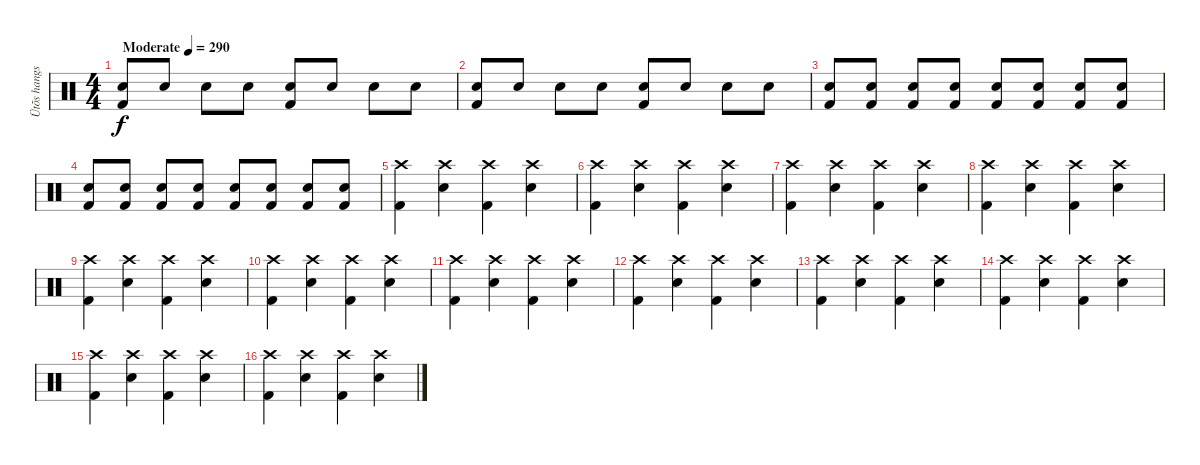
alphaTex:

\track ("Ütõs hangszer" "Ütõs hangs") {instrument percussion}
\staff {score}
\articulation defaults
\ts (4 4)
\tempo (290 "Moderate")
\clef neutral
\ks c
("Snare (hit) 2" "Kick (hit) 2").8{dy f} "Snare (hit) 2".8 "Snare (hit) 2".8 "Snare (hit) 2".8 ("Snare (hit) 2" "Kick (hit) 2").8 "Snare (hit) 2".8 "Snare (hit) 2".8 "Snare (hit) 2".8 |
("Snare (hit) 2" "Kick (hit) 2").8 "Snare (hit) 2".8 "Snare (hit) 2".8 "Snare (hit) 2".8 ("Snare (hit) 2" "Kick (hit) 2").8 "Snare (hit) 2".8 "Snare (hit) 2".8 "Snare (hit) 2".8 |
("Snare (hit) 2" "Kick (hit) 2").8 ("Snare (hit) 2" "Kick (hit) 2").8 ("Snare (hit) 2" "Kick (hit) 2").8 ("Snare (hit) 2" "Kick (hit) 2").8 ("Snare (hit) 2" "Kick (hit) 2").8 ("Snare (hit) 2" "Kick (hit) 2").8 ("Snare (hit) 2" "Kick (hit) 2").8 ("Snare (hit) 2" "Kick (hit) 2").8 |
("Snare (hit) 2" "Kick (hit) 2").8 ("Snare (hit) 2" "Kick (hit) 2").8 ("Snare (hit) 2" "Kick (hit) 2").8 ("Snare (hit) 2" "Kick (hit) 2").8 ("Snare (hit) 2" "Kick (hit) 2").8 ("Snare (hit) 2" "Kick (hit) 2").8 ("Snare (hit) 2" "Kick (hit) 2").8 ("Snare (hit) 2" "Kick (hit) 2").8 |
("Crash high (hit)" "Kick (hit) 2").4 ("Crash high (hit)" "Snare (hit) 2").4 ("Crash high (hit)" "Kick (hit) 2").4 ("Crash high (hit)" "Snare (hit) 2").4 |
("Crash high (hit)" "Kick (hit) 2").4 ("Crash high (hit)" "Snare (hit) 2").4 ("Crash high (hit)" "Kick (hit) 2").4 ("Crash high (hit)" "Snare (hit) 2").4 |
("Crash high (hit)" "Kick (hit) 2").4 ("Crash high (hit)" "Snare (hit) 2").4 ("Crash high (hit)" "Kick (hit) 2").4 ("Crash high (hit)" "Snare (hit) 2").4 |
("Crash high (hit)" "Kick (hit) 2").4 ("Crash high (hit)" "Snare (hit) 2").4 ("Crash high (hit)" "Kick (hit) 2").4 ("Crash high (hit)" "Snare (hit) 2").4 |
("Crash high (hit)" "Kick (hit) 2").4 ("Crash high (hit)" "Snare (hit) 2").4 ("Crash high (hit)" "Kick (hit) 2").4 ("Crash high (hit)" "Snare (hit) 2").4 |
("Crash high (hit)" "Kick (hit) 2").4 ("Crash high (hit)" "Snare (hit) 2").4 ("Crash high (hit)" "Kick (hit) 2").4 ("Crash high (hit)" "Snare (hit) 2").4 |
("Crash high (hit)" "Kick (hit) 2").4 ("Crash high (hit)" "Snare (hit) 2").4 ("Crash high (hit)" "Kick (hit) 2").4 ("Crash high (hit)" "Snare (hit) 2").4 |
("Crash high (hit)" "Kick (hit) 2").4 ("Crash high (hit)" "Snare (hit) 2").4 ("Crash high (hit)" "Kick (hit) 2").4 ("Crash high (hit)" "Snare (hit) 2").4 |
("Crash high (hit)" "Kick (hit) 2").4 ("Crash high (hit)" "Snare (hit) 2").4 ("Crash high (hit)" "Kick (hit) 2").4 ("Crash high (hit)" "Snare (hit) 2").4 |
("Crash high (hit)" "Kick (hit) 2").4 ("Crash high (hit)" "Snare (hit) 2").4 ("Crash high (hit)" "Kick (hit) 2").4 ("Crash high (hit)" "Snare (hit) 2").4 |
("Crash high (hit)" "Kick (hit) 2").4 ("Crash high (hit)" "Snare (hit) 2").4 ("Crash high (hit)" "Kick (hit) 2").4 ("Crash high (hit)" "Snare (hit) 2").4 |
("Crash high (hit)" "Kick (hit) 2").4 ("Crash high (hit)" "Snare (hit) 2").4 ("Crash high (hit)" "Kick (hit) 2").4 ("Crash high (hit)" "Snare (hit) 2").4
